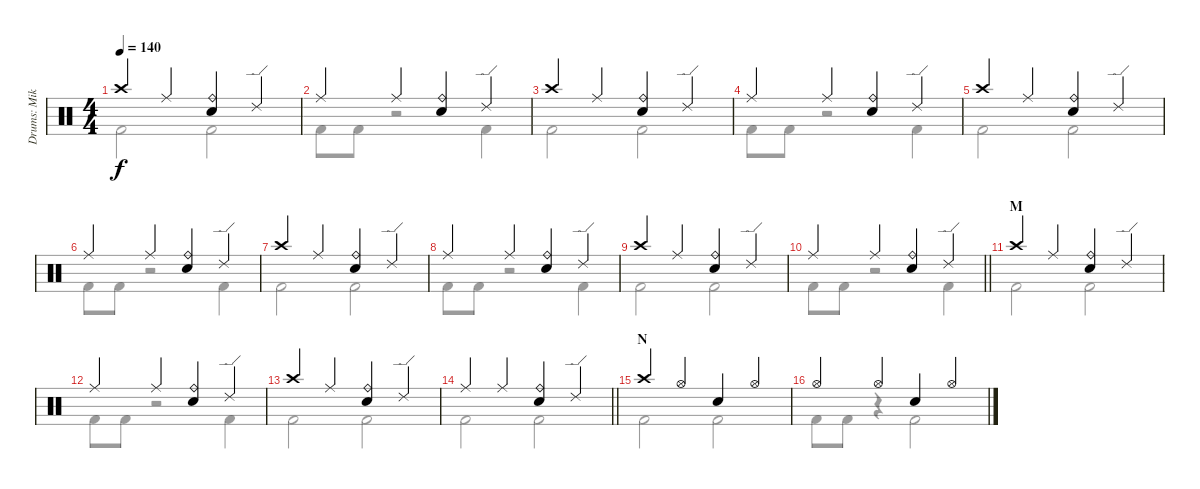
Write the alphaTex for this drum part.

\track ("Drums: Mike" "Drums: Mik") {instrument percussion}
\staff {score}
\articulation defaults
\voice
\ts (4 4)
\tempo 140
\clef neutral
\ks c "Crash high (hit)".4{dy f} "Ride (middle)".4
("Ride (bell)" "Snare (hit) 2").4 "Ride (edge) 2".4 |
"Ride (middle)".4 "Ride (middle)".4 ("Ride (bell)" "Snare (hit) 2").4 "Ride (edge) 2".4 |
"Crash high (hit)".4 "Ride (middle)".4 ("Ride (bell)" "Snare (hit) 2").4 "Ride (edge) 2".4 |
"Ride (middle)".4 "Ride (middle)".4 ("Ride (bell)" "Snare (hit) 2").4 "Ride (edge) 2".4 |
"Crash high (hit)".4 "Ride (middle)".4 ("Ride (bell)" "Snare (hit) 2").4 "Ride (edge) 2".4 |
"Ride (middle)".4 "Ride (middle)".4 ("Ride (bell)" "Snare (hit) 2").4 "Ride (edge) 2".4 |
"Crash high (hit)".4 "Ride (middle)".4 ("Ride (bell)" "Snare (hit) 2").4 "Ride (edge) 2".4 |
"Ride (middle)".4 "Ride (middle)".4 ("Ride (bell)" "Snare (hit) 2").4 "Ride (edge) 2".4 |
"Crash high (hit)".4 "Ride (middle)".4 ("Ride (bell)" "Snare (hit) 2").4 "Ride (edge) 2".4 |
\barLineRight lightlight "Ride (middle)".4 "Ride (middle)".4
("Ride (bell)" "Snare (hit) 2").4 "Ride (edge) 2".4 |
\section ("" "M")
"Crash high (hit)".4 "Ride (middle)".4 ("Ride (bell)" "Snare (hit) 2").4 "Ride (edge) 2".4 |
"Ride (middle)".4 "Ride (middle)".4 ("Ride (bell)" "Snare (hit) 2").4 "Ride (edge) 2".4 |
"Crash high (hit)".4 "Ride (middle)".4 ("Ride (bell)" "Snare (hit) 2").4 "Ride (edge) 2".4 |
\barLineRight lightlight "Ride (middle)".4 "Ride (middle)".4
("Ride (bell)" "Snare (hit) 2").4 "Ride (edge) 2".4 |
\section ("" "N")
"Crash high (hit)".4 "Hi-Hat (open)".4 "Snare (hit) 2".4 "Hi-Hat (open)".4 |
"Hi-Hat (open)".4 "Hi-Hat (open)".4 "Snare (hit) 2".4 "Hi-Hat (open)".4
\voice
\clef neutral
\ottava regular
\simile none
\ks c "Kick (hit) 2".2{dy f} "Kick (hit) 2".2
|
"Kick (hit) 2".8 "Kick (hit) 2".8 r.2 "Kick (hit) 2".4 |
"Kick (hit) 2".2 "Kick (hit) 2".2 |
"Kick (hit) 2".8 "Kick (hit) 2".8 r.2 "Kick (hit) 2".4 |
"Kick (hit) 2".2 "Kick (hit) 2".2 |
"Kick (hit) 2".8 "Kick (hit) 2".8 r.2 "Kick (hit) 2".4 |
"Kick (hit) 2".2 "Kick (hit) 2".2 |
"Kick (hit) 2".8 "Kick (hit) 2".8 r.2 "Kick (hit) 2".4 |
"Kick (hit) 2".2 "Kick (hit) 2".2 |
\barLineRight lightlight "Kick (hit) 2".8 "Kick (hit) 2".8
r.2 "Kick (hit) 2".4 |
"Kick (hit) 2".2 "Kick (hit) 2".2 |
"Kick (hit) 2".8 "Kick (hit) 2".8 r.2 "Kick (hit) 2".4 |
"Kick (hit) 2".2 "Kick (hit) 2".2 |
\barLineRight lightlight "Kick (hit) 2".2 "Kick (hit) 2".2
|
"Kick (hit) 2".2 "Kick (hit) 2".2 |
"Kick (hit) 2".8 "Kick (hit) 2".8 r.4 "Kick (hit) 2".2
